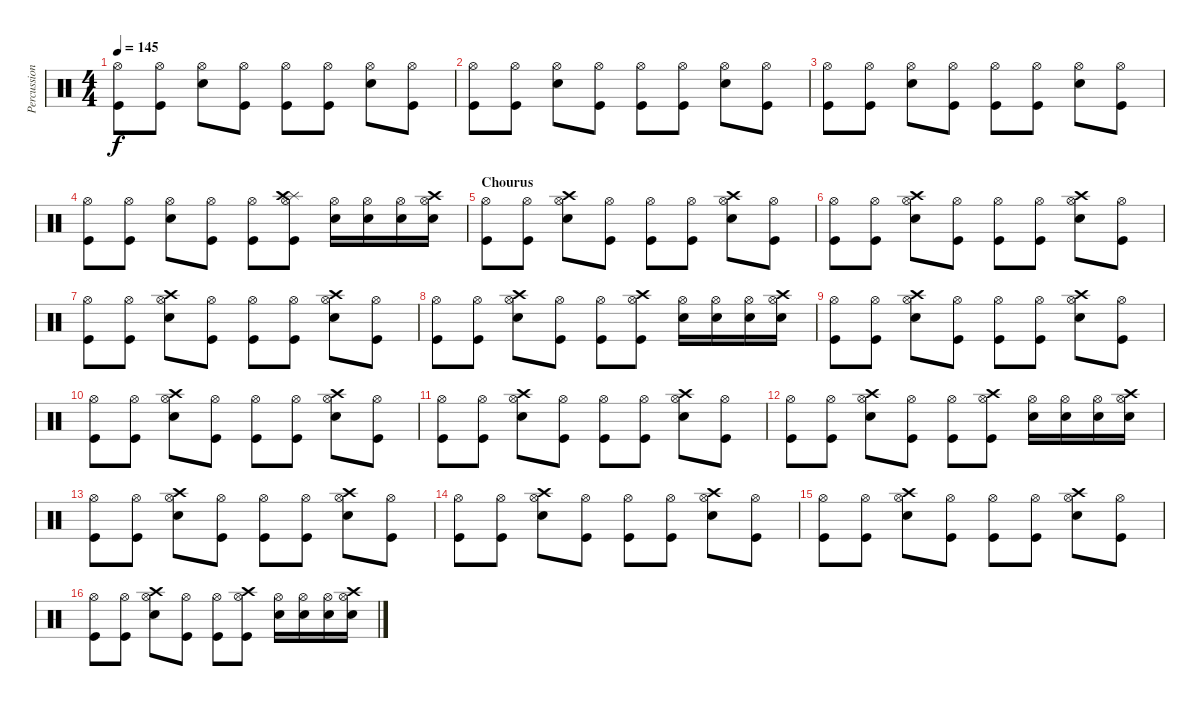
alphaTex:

\track ("Percussion" "Percussion") {instrument percussion}
\staff {score}
\articulation defaults
\ts (4 4)
\tempo 145
\clef neutral
\ks c
("Hi-Hat (open)" "Kick (hit)").8{dy f} ("Hi-Hat (open)" "Kick (hit)").8 ("Hi-Hat (open)" "Snare (hit) 2").8 ("Hi-Hat (open)" "Kick (hit)").8 ("Hi-Hat (open)" "Kick (hit)").8 ("Hi-Hat (open)" "Kick (hit)").8 ("Hi-Hat (open)" "Snare (hit) 2").8 ("Hi-Hat (open)" "Kick (hit)").8 |
("Hi-Hat (open)" "Kick (hit)").8 ("Hi-Hat (open)" "Kick (hit)").8 ("Hi-Hat (open)" "Snare (hit) 2").8 ("Hi-Hat (open)" "Kick (hit)").8 ("Hi-Hat (open)" "Kick (hit)").8 ("Hi-Hat (open)" "Kick (hit)").8 ("Hi-Hat (open)" "Snare (hit) 2").8 ("Hi-Hat (open)" "Kick (hit)").8 |
("Hi-Hat (open)" "Kick (hit)").8 ("Hi-Hat (open)" "Kick (hit)").8 ("Hi-Hat (open)" "Snare (hit) 2").8 ("Hi-Hat (open)" "Kick (hit)").8 ("Hi-Hat (open)" "Kick (hit)").8 ("Hi-Hat (open)" "Kick (hit)").8 ("Hi-Hat (open)" "Snare (hit) 2").8 ("Hi-Hat (open)" "Kick (hit)").8 |
("Hi-Hat (open)" "Kick (hit)").8 ("Hi-Hat (open)" "Kick (hit)").8 ("Hi-Hat (open)" "Snare (hit) 2").8 ("Hi-Hat (open)" "Kick (hit)").8 ("Hi-Hat (open)" "Kick (hit)").8 ("Hi-Hat (open)" "Splash (hit)" "Crash high (hit)" "Kick (hit)").8 ("Hi-Hat (open)" "Snare (hit) 2").16 ("Hi-Hat (open)" "Snare (hit) 2").16 ("Hi-Hat (open)" "Snare (hit) 2").16 ("Hi-Hat (open)" "Snare (hit) 2" "Crash high (hit)").16 |
\section ("" "Chourus")
("Hi-Hat (open)" "Kick (hit)").8 ("Hi-Hat (open)" "Kick (hit)").8 ("Hi-Hat (open)" "Snare (hit) 2" "Crash high (hit)").8 ("Hi-Hat (open)" "Kick (hit)").8 ("Hi-Hat (open)" "Kick (hit)").8 ("Hi-Hat (open)" "Kick (hit)").8 ("Hi-Hat (open)" "Snare (hit) 2" "Crash high (hit)").8 ("Hi-Hat (open)" "Kick (hit)").8 |
("Hi-Hat (open)" "Kick (hit)").8 ("Hi-Hat (open)" "Kick (hit)").8 ("Hi-Hat (open)" "Snare (hit) 2" "Crash high (hit)").8 ("Hi-Hat (open)" "Kick (hit)").8 ("Hi-Hat (open)" "Kick (hit)").8 ("Hi-Hat (open)" "Kick (hit)").8 ("Hi-Hat (open)" "Snare (hit) 2" "Crash high (hit)").8 ("Hi-Hat (open)" "Kick (hit)").8 |
("Hi-Hat (open)" "Kick (hit)").8 ("Hi-Hat (open)" "Kick (hit)").8 ("Hi-Hat (open)" "Snare (hit) 2" "Crash high (hit)").8 ("Hi-Hat (open)" "Kick (hit)").8 ("Hi-Hat (open)" "Kick (hit)").8 ("Hi-Hat (open)" "Kick (hit)").8 ("Hi-Hat (open)" "Snare (hit) 2" "Crash high (hit)").8 ("Hi-Hat (open)" "Kick (hit)").8 |
("Hi-Hat (open)" "Kick (hit)").8 ("Hi-Hat (open)" "Kick (hit)").8 ("Hi-Hat (open)" "Snare (hit) 2" "Crash high (hit)").8 ("Hi-Hat (open)" "Kick (hit)").8 ("Hi-Hat (open)" "Kick (hit)").8 ("Hi-Hat (open)" "Crash high (hit)" "Kick (hit)").8 ("Hi-Hat (open)" "Snare (hit) 2").16 ("Hi-Hat (open)" "Snare (hit) 2").16 ("Hi-Hat (open)" "Snare (hit) 2").16 ("Hi-Hat (open)" "Snare (hit) 2" "Crash high (hit)").16 |
("Hi-Hat (open)" "Kick (hit)").8 ("Hi-Hat (open)" "Kick (hit)").8 ("Hi-Hat (open)" "Snare (hit) 2" "Crash high (hit)").8 ("Hi-Hat (open)" "Kick (hit)").8 ("Hi-Hat (open)" "Kick (hit)").8 ("Hi-Hat (open)" "Kick (hit)").8 ("Hi-Hat (open)" "Snare (hit) 2" "Crash high (hit)").8 ("Hi-Hat (open)" "Kick (hit)").8 |
("Hi-Hat (open)" "Kick (hit)").8 ("Hi-Hat (open)" "Kick (hit)").8 ("Hi-Hat (open)" "Snare (hit) 2" "Crash high (hit)").8 ("Hi-Hat (open)" "Kick (hit)").8 ("Hi-Hat (open)" "Kick (hit)").8 ("Hi-Hat (open)" "Kick (hit)").8 ("Hi-Hat (open)" "Snare (hit) 2" "Crash high (hit)").8 ("Hi-Hat (open)" "Kick (hit)").8 |
("Hi-Hat (open)" "Kick (hit)").8 ("Hi-Hat (open)" "Kick (hit)").8 ("Hi-Hat (open)" "Snare (hit) 2" "Crash high (hit)").8 ("Hi-Hat (open)" "Kick (hit)").8 ("Hi-Hat (open)" "Kick (hit)").8 ("Hi-Hat (open)" "Kick (hit)").8 ("Hi-Hat (open)" "Snare (hit) 2" "Crash high (hit)").8 ("Hi-Hat (open)" "Kick (hit)").8 |
("Hi-Hat (open)" "Kick (hit)").8 ("Hi-Hat (open)" "Kick (hit)").8 ("Hi-Hat (open)" "Snare (hit) 2" "Crash high (hit)").8 ("Hi-Hat (open)" "Kick (hit)").8 ("Hi-Hat (open)" "Kick (hit)").8 ("Hi-Hat (open)" "Crash high (hit)" "Kick (hit)").8 ("Hi-Hat (open)" "Snare (hit) 2").16 ("Hi-Hat (open)" "Snare (hit) 2").16 ("Hi-Hat (open)" "Snare (hit) 2").16 ("Hi-Hat (open)" "Snare (hit) 2" "Crash high (hit)").16 |
("Hi-Hat (open)" "Kick (hit)").8 ("Hi-Hat (open)" "Kick (hit)").8 ("Hi-Hat (open)" "Snare (hit) 2" "Crash high (hit)").8 ("Hi-Hat (open)" "Kick (hit)").8 ("Hi-Hat (open)" "Kick (hit)").8 ("Hi-Hat (open)" "Kick (hit)").8 ("Hi-Hat (open)" "Snare (hit) 2" "Crash high (hit)").8 ("Hi-Hat (open)" "Kick (hit)").8 |
("Hi-Hat (open)" "Kick (hit)").8 ("Hi-Hat (open)" "Kick (hit)").8 ("Hi-Hat (open)" "Snare (hit) 2" "Crash high (hit)").8 ("Hi-Hat (open)" "Kick (hit)").8 ("Hi-Hat (open)" "Kick (hit)").8 ("Hi-Hat (open)" "Kick (hit)").8 ("Hi-Hat (open)" "Snare (hit) 2" "Crash high (hit)").8 ("Hi-Hat (open)" "Kick (hit)").8 |
("Hi-Hat (open)" "Kick (hit)").8 ("Hi-Hat (open)" "Kick (hit)").8 ("Hi-Hat (open)" "Snare (hit) 2" "Crash high (hit)").8 ("Hi-Hat (open)" "Kick (hit)").8 ("Hi-Hat (open)" "Kick (hit)").8 ("Hi-Hat (open)" "Kick (hit)").8 ("Hi-Hat (open)" "Snare (hit) 2" "Crash high (hit)").8 ("Hi-Hat (open)" "Kick (hit)").8 |
("Hi-Hat (open)" "Kick (hit)").8 ("Hi-Hat (open)" "Kick (hit)").8 ("Hi-Hat (open)" "Snare (hit) 2" "Crash high (hit)").8 ("Hi-Hat (open)" "Kick (hit)").8 ("Hi-Hat (open)" "Kick (hit)").8 ("Hi-Hat (open)" "Crash high (hit)" "Kick (hit)").8 ("Hi-Hat (open)" "Snare (hit) 2").16 ("Hi-Hat (open)" "Snare (hit) 2").16 ("Hi-Hat (open)" "Snare (hit) 2").16 ("Hi-Hat (open)" "Snare (hit) 2" "Crash high (hit)").16
